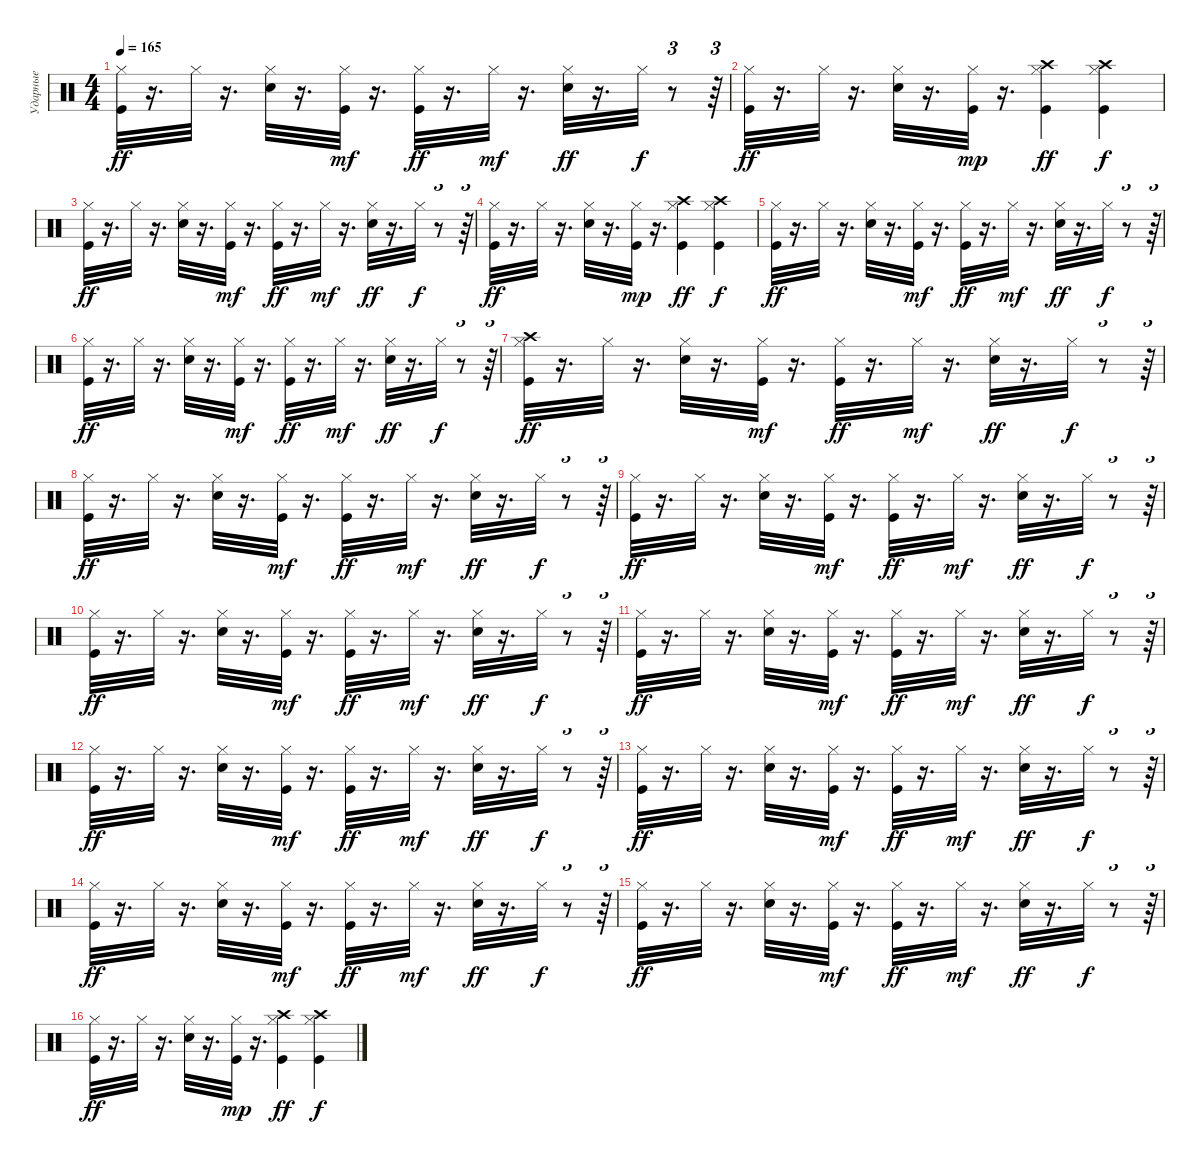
\track ("Ударные" "Ударные") {instrument percussion}
\staff {score}
\articulation defaults
\ts (4 4)
\tempo 165
\clef neutral
\ks c
("Kick (hit)" "Hi-Hat (closed)").32{dy ff} r.16{d} "Hi-Hat (closed)".32 r.16{d} ("Hi-Hat (closed)" "Electric Snare (hit)").32 r.16{d} ("Kick (hit)" "Hi-Hat (closed)").32{dy mf} r.16{d} ("Kick (hit)" "Hi-Hat (closed)").32{dy ff} r.16{d} "Hi-Hat (closed)".32{dy mf} r.16{d} ("Hi-Hat (closed)" "Electric Snare (hit)").32{dy ff} r.16{d} "Hi-Hat (closed)".32{dy f} r.8{tu (3 2)} r.64{tu (3 2)} |
("Kick (hit)" "Hi-Hat (closed)").32{dy ff} r.16{d} "Hi-Hat (closed)".32 r.16{d} ("Hi-Hat (closed)" "Electric Snare (hit)").32 r.16{d} ("Kick (hit)" "Hi-Hat (closed)").32{dy mp} r.16{d} ("Kick (hit)" "Hi-Hat (closed)" "Crash high (hit)").4{dy ff} ("Kick (hit)" "Hi-Hat (closed)" "Crash high (hit)").4{dy f} |
("Kick (hit)" "Hi-Hat (closed)").32{dy ff} r.16{d} "Hi-Hat (closed)".32 r.16{d} ("Hi-Hat (closed)" "Electric Snare (hit)").32 r.16{d} ("Kick (hit)" "Hi-Hat (closed)").32{dy mf} r.16{d} ("Kick (hit)" "Hi-Hat (closed)").32{dy ff} r.16{d} "Hi-Hat (closed)".32{dy mf} r.16{d} ("Hi-Hat (closed)" "Electric Snare (hit)").32{dy ff} r.16{d} "Hi-Hat (closed)".32{dy f} r.8{tu (3 2)} r.64{tu (3 2)} |
("Kick (hit)" "Hi-Hat (closed)").32{dy ff} r.16{d} "Hi-Hat (closed)".32 r.16{d} ("Hi-Hat (closed)" "Electric Snare (hit)").32 r.16{d} ("Kick (hit)" "Hi-Hat (closed)").32{dy mp} r.16{d} ("Kick (hit)" "Hi-Hat (closed)" "Crash high (hit)").4{dy ff} ("Kick (hit)" "Hi-Hat (closed)" "Crash high (hit)").4{dy f} |
("Kick (hit)" "Hi-Hat (closed)").32{dy ff} r.16{d} "Hi-Hat (closed)".32 r.16{d} ("Hi-Hat (closed)" "Electric Snare (hit)").32 r.16{d} ("Kick (hit)" "Hi-Hat (closed)").32{dy mf} r.16{d} ("Kick (hit)" "Hi-Hat (closed)").32{dy ff} r.16{d} "Hi-Hat (closed)".32{dy mf} r.16{d} ("Hi-Hat (closed)" "Electric Snare (hit)").32{dy ff} r.16{d} "Hi-Hat (closed)".32{dy f} r.8{tu (3 2)} r.64{tu (3 2)} |
("Kick (hit)" "Hi-Hat (closed)").32{dy ff} r.16{d} "Hi-Hat (closed)".32 r.16{d} ("Hi-Hat (closed)" "Electric Snare (hit)").32 r.16{d} ("Kick (hit)" "Hi-Hat (closed)").32{dy mf} r.16{d} ("Kick (hit)" "Hi-Hat (closed)").32{dy ff} r.16{d} "Hi-Hat (closed)".32{dy mf} r.16{d} ("Hi-Hat (closed)" "Electric Snare (hit)").32{dy ff} r.16{d} "Hi-Hat (closed)".32{dy f} r.8{tu (3 2)} r.64{tu (3 2)} |
("Kick (hit)" "Hi-Hat (closed)" "Crash high (hit)").32{dy ff} r.16{d} "Hi-Hat (closed)".32 r.16{d} ("Hi-Hat (closed)" "Electric Snare (hit)").32 r.16{d} ("Kick (hit)" "Hi-Hat (closed)").32{dy mf} r.16{d} ("Kick (hit)" "Hi-Hat (closed)").32{dy ff} r.16{d} "Hi-Hat (closed)".32{dy mf} r.16{d} ("Hi-Hat (closed)" "Electric Snare (hit)").32{dy ff} r.16{d} "Hi-Hat (closed)".32{dy f} r.8{tu (3 2)} r.64{tu (3 2)} |
("Kick (hit)" "Hi-Hat (closed)").32{dy ff} r.16{d} "Hi-Hat (closed)".32 r.16{d} ("Hi-Hat (closed)" "Electric Snare (hit)").32 r.16{d} ("Kick (hit)" "Hi-Hat (closed)").32{dy mf} r.16{d} ("Kick (hit)" "Hi-Hat (closed)").32{dy ff} r.16{d} "Hi-Hat (closed)".32{dy mf} r.16{d} ("Hi-Hat (closed)" "Electric Snare (hit)").32{dy ff} r.16{d} "Hi-Hat (closed)".32{dy f} r.8{tu (3 2)} r.64{tu (3 2)} |
("Kick (hit)" "Hi-Hat (closed)").32{dy ff} r.16{d} "Hi-Hat (closed)".32 r.16{d} ("Hi-Hat (closed)" "Electric Snare (hit)").32 r.16{d} ("Kick (hit)" "Hi-Hat (closed)").32{dy mf} r.16{d} ("Kick (hit)" "Hi-Hat (closed)").32{dy ff} r.16{d} "Hi-Hat (closed)".32{dy mf} r.16{d} ("Hi-Hat (closed)" "Electric Snare (hit)").32{dy ff} r.16{d} "Hi-Hat (closed)".32{dy f} r.8{tu (3 2)} r.64{tu (3 2)} |
("Kick (hit)" "Hi-Hat (closed)").32{dy ff} r.16{d} "Hi-Hat (closed)".32 r.16{d} ("Hi-Hat (closed)" "Electric Snare (hit)").32 r.16{d} ("Kick (hit)" "Hi-Hat (closed)").32{dy mf} r.16{d} ("Kick (hit)" "Hi-Hat (closed)").32{dy ff} r.16{d} "Hi-Hat (closed)".32{dy mf} r.16{d} ("Hi-Hat (closed)" "Electric Snare (hit)").32{dy ff} r.16{d} "Hi-Hat (closed)".32{dy f} r.8{tu (3 2)} r.64{tu (3 2)} |
("Kick (hit)" "Hi-Hat (closed)").32{dy ff} r.16{d} "Hi-Hat (closed)".32 r.16{d} ("Hi-Hat (closed)" "Electric Snare (hit)").32 r.16{d} ("Kick (hit)" "Hi-Hat (closed)").32{dy mf} r.16{d} ("Kick (hit)" "Hi-Hat (closed)").32{dy ff} r.16{d} "Hi-Hat (closed)".32{dy mf} r.16{d} ("Hi-Hat (closed)" "Electric Snare (hit)").32{dy ff} r.16{d} "Hi-Hat (closed)".32{dy f} r.8{tu (3 2)} r.64{tu (3 2)} |
("Kick (hit)" "Hi-Hat (closed)").32{dy ff} r.16{d} "Hi-Hat (closed)".32 r.16{d} ("Hi-Hat (closed)" "Electric Snare (hit)").32 r.16{d} ("Kick (hit)" "Hi-Hat (closed)").32{dy mf} r.16{d} ("Kick (hit)" "Hi-Hat (closed)").32{dy ff} r.16{d} "Hi-Hat (closed)".32{dy mf} r.16{d} ("Hi-Hat (closed)" "Electric Snare (hit)").32{dy ff} r.16{d} "Hi-Hat (closed)".32{dy f} r.8{tu (3 2)} r.64{tu (3 2)} |
("Kick (hit)" "Hi-Hat (closed)").32{dy ff} r.16{d} "Hi-Hat (closed)".32 r.16{d} ("Hi-Hat (closed)" "Electric Snare (hit)").32 r.16{d} ("Kick (hit)" "Hi-Hat (closed)").32{dy mf} r.16{d} ("Kick (hit)" "Hi-Hat (closed)").32{dy ff} r.16{d} "Hi-Hat (closed)".32{dy mf} r.16{d} ("Hi-Hat (closed)" "Electric Snare (hit)").32{dy ff} r.16{d} "Hi-Hat (closed)".32{dy f} r.8{tu (3 2)} r.64{tu (3 2)} |
("Kick (hit)" "Hi-Hat (closed)").32{dy ff} r.16{d} "Hi-Hat (closed)".32 r.16{d} ("Hi-Hat (closed)" "Electric Snare (hit)").32 r.16{d} ("Kick (hit)" "Hi-Hat (closed)").32{dy mf} r.16{d} ("Kick (hit)" "Hi-Hat (closed)").32{dy ff} r.16{d} "Hi-Hat (closed)".32{dy mf} r.16{d} ("Hi-Hat (closed)" "Electric Snare (hit)").32{dy ff} r.16{d} "Hi-Hat (closed)".32{dy f} r.8{tu (3 2)} r.64{tu (3 2)} |
("Kick (hit)" "Hi-Hat (closed)").32{dy ff} r.16{d} "Hi-Hat (closed)".32 r.16{d} ("Hi-Hat (closed)" "Electric Snare (hit)").32 r.16{d} ("Kick (hit)" "Hi-Hat (closed)").32{dy mf} r.16{d} ("Kick (hit)" "Hi-Hat (closed)").32{dy ff} r.16{d} "Hi-Hat (closed)".32{dy mf} r.16{d} ("Hi-Hat (closed)" "Electric Snare (hit)").32{dy ff} r.16{d} "Hi-Hat (closed)".32{dy f} r.8{tu (3 2)} r.64{tu (3 2)} |
("Kick (hit)" "Hi-Hat (closed)").32{dy ff} r.16{d} "Hi-Hat (closed)".32 r.16{d} ("Hi-Hat (closed)" "Electric Snare (hit)").32 r.16{d} ("Kick (hit)" "Hi-Hat (closed)").32{dy mp} r.16{d} ("Kick (hit)" "Hi-Hat (closed)" "Crash high (hit)").4{dy ff} ("Kick (hit)" "Hi-Hat (closed)" "Crash high (hit)").4{dy f}
